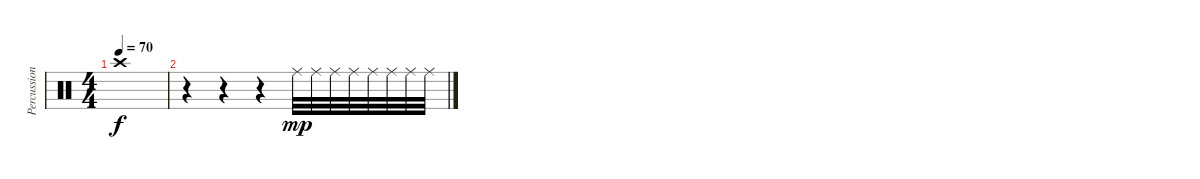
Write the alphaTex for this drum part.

\track ("Percussion" "Percussion") {instrument percussion}
\staff {score}
\articulation defaults
\ts (4 4)
\tempo 70
\clef neutral
\ks c "Crash high (hit)".1{dy f}
|
r.4 r.4 r.4 "Ride (middle)".32{dy mp} "Ride (middle)".32 "Ride (middle)".32 "Ride (middle)".32 "Ride (middle)".32 "Ride (middle)".32 "Ride (middle)".32 "Ride (middle)".32
